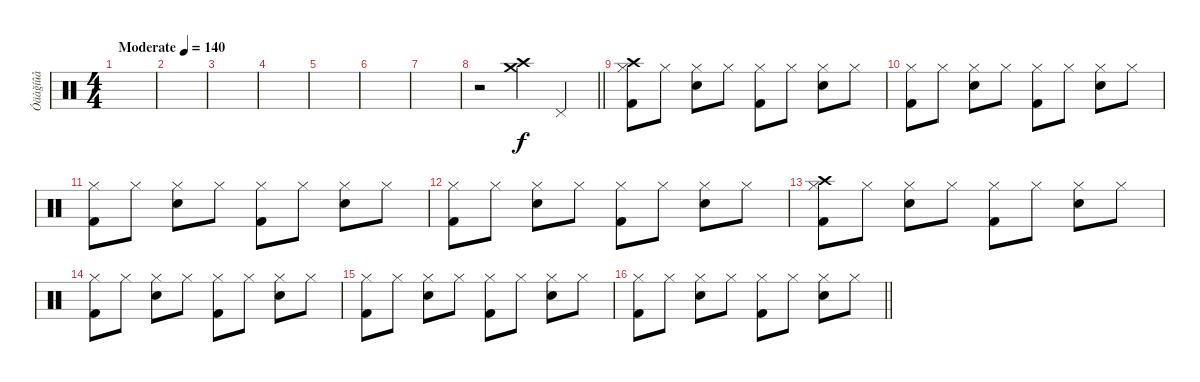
\track ("Óäàğíûå" "Óäàğíûå") {instrument percussion}
\staff {score}
\articulation defaults
\ts (4 4)
\tempo (140 "Moderate")
\clef neutral
\ks c
|
|
|
|
|
|
|
\barLineRight lightlight
r.2 ("Crash high (hit)" "Crash medium (hit)").4 "Pedal Hi-Hat (hit)".4 |
("Hi-Hat (closed)" "Kick (hit) 2" "Crash high (hit)").8 "Hi-Hat (closed)".8 ("Hi-Hat (closed)" "Snare (hit) 2").8 "Hi-Hat (closed)".8 ("Hi-Hat (closed)" "Kick (hit) 2").8 "Hi-Hat (closed)".8 ("Hi-Hat (closed)" "Snare (hit) 2").8 "Hi-Hat (closed)".8 |
("Hi-Hat (closed)" "Kick (hit) 2").8 "Hi-Hat (closed)".8 ("Hi-Hat (closed)" "Snare (hit) 2").8 "Hi-Hat (closed)".8 ("Hi-Hat (closed)" "Kick (hit) 2").8 "Hi-Hat (closed)".8 ("Hi-Hat (closed)" "Snare (hit) 2").8 "Hi-Hat (closed)".8 |
("Hi-Hat (closed)" "Kick (hit) 2").8 "Hi-Hat (closed)".8 ("Hi-Hat (closed)" "Snare (hit) 2").8 "Hi-Hat (closed)".8 ("Hi-Hat (closed)" "Kick (hit) 2").8 "Hi-Hat (closed)".8 ("Hi-Hat (closed)" "Snare (hit) 2").8 "Hi-Hat (closed)".8 |
("Hi-Hat (closed)" "Kick (hit) 2").8 "Hi-Hat (closed)".8 ("Hi-Hat (closed)" "Snare (hit) 2").8 "Hi-Hat (closed)".8 ("Hi-Hat (closed)" "Kick (hit) 2").8 "Hi-Hat (closed)".8 ("Hi-Hat (closed)" "Snare (hit) 2").8 "Hi-Hat (closed)".8 |
("Hi-Hat (closed)" "Kick (hit) 2" "Crash high (hit)").8 "Hi-Hat (closed)".8 ("Hi-Hat (closed)" "Snare (hit) 2").8 "Hi-Hat (closed)".8 ("Hi-Hat (closed)" "Kick (hit) 2").8 "Hi-Hat (closed)".8 ("Hi-Hat (closed)" "Snare (hit) 2").8 "Hi-Hat (closed)".8 |
("Hi-Hat (closed)" "Kick (hit) 2").8 "Hi-Hat (closed)".8 ("Hi-Hat (closed)" "Snare (hit) 2").8 "Hi-Hat (closed)".8 ("Hi-Hat (closed)" "Kick (hit) 2").8 "Hi-Hat (closed)".8 ("Hi-Hat (closed)" "Snare (hit) 2").8 "Hi-Hat (closed)".8 |
("Hi-Hat (closed)" "Kick (hit) 2").8 "Hi-Hat (closed)".8 ("Hi-Hat (closed)" "Snare (hit) 2").8 "Hi-Hat (closed)".8 ("Hi-Hat (closed)" "Kick (hit) 2").8 "Hi-Hat (closed)".8 ("Hi-Hat (closed)" "Snare (hit) 2").8 "Hi-Hat (closed)".8 |
\barLineRight lightlight
("Hi-Hat (closed)" "Kick (hit) 2").8 "Hi-Hat (closed)".8 ("Hi-Hat (closed)" "Snare (hit) 2").8 "Hi-Hat (closed)".8 ("Hi-Hat (closed)" "Kick (hit) 2").8 "Hi-Hat (closed)".8 ("Hi-Hat (closed)" "Snare (hit) 2").8 "Hi-Hat (closed)".8
